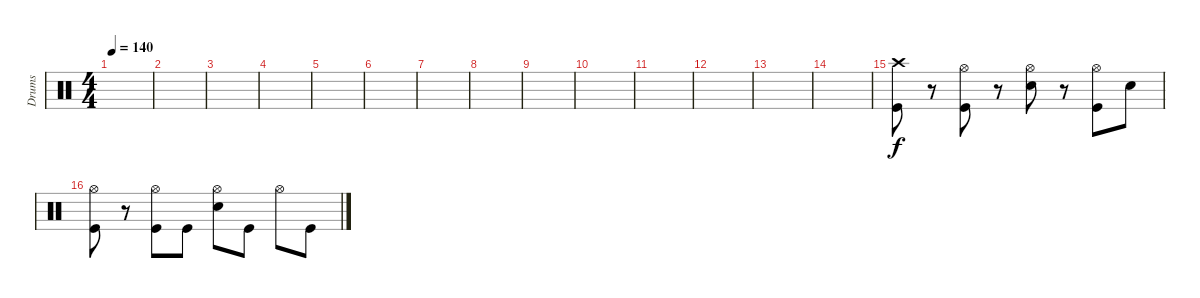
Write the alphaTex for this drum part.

\track ("Drums" "Drums") {instrument percussion}
\staff {score}
\articulation defaults
\ts (4 4)
\tempo 140
\clef neutral
\ks c
|
|
|
|
|
|
|
|
|
|
|
|
|
|
("Crash high (hit)" "Kick (hit)").8 r.8 ("Hi-Hat (open)" "Kick (hit)").8 r.8 ("Hi-Hat (open)" "Snare (hit) 2").8 r.8 ("Hi-Hat (open)" "Kick (hit)").8 "Snare (hit) 2".8 |
("Hi-Hat (open)" "Kick (hit)").8 r.8 ("Hi-Hat (open)" "Kick (hit)").8 "Kick (hit)".8 ("Hi-Hat (open)" "Snare (hit) 2").8 "Kick (hit)".8 "Hi-Hat (open)".8 "Kick (hit)".8
